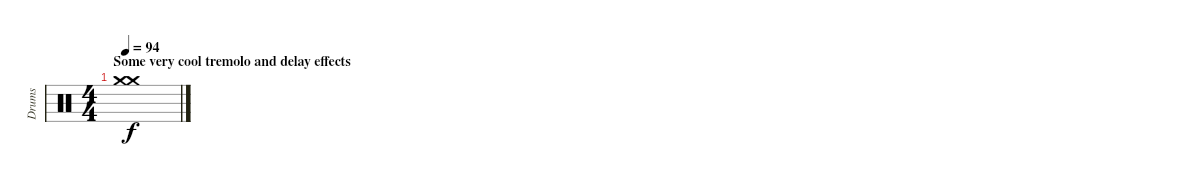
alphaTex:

\track ("Drums" "Drums") {instrument percussion}
\staff {score}
\articulation defaults
\ts (4 4)
\section ("" "Some very cool tremolo and delay effects")
\tempo 94
\clef neutral
\ks c
("Crash medium (hit)" "Crash medium (hit)").1{dy f}
